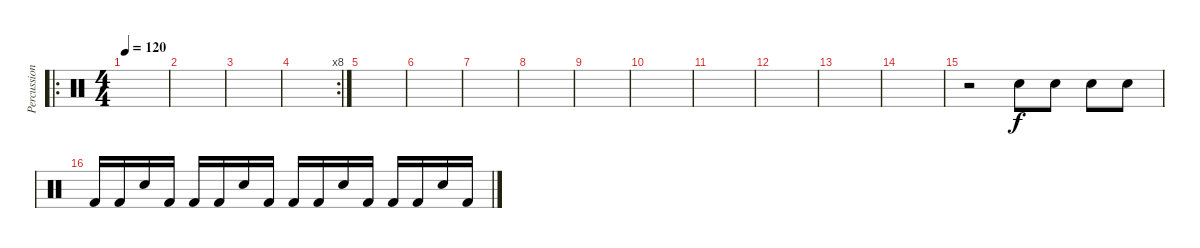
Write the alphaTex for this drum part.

\track ("Percussion" "Percussion") {instrument percussion}
\staff {score}
\articulation defaults
\ro
\ts (4 4)
\tempo 120
\clef neutral
\ks c
|
|
|
\rc 8
|
|
|
|
|
|
|
|
|
|
|
r.2 "Snare (hit) 2".8 "Snare (hit) 2".8 "Snare (hit) 2".8 "Snare (hit) 2".8 |
"Kick (hit) 2".16 "Kick (hit) 2".16 "Snare (hit) 2".16 "Kick (hit) 2".16 "Kick (hit) 2".16 "Kick (hit) 2".16 "Snare (hit) 2".16 "Kick (hit) 2".16 "Kick (hit) 2".16 "Kick (hit) 2".16 "Snare (hit) 2".16 "Kick (hit) 2".16 "Kick (hit) 2".16 "Kick (hit) 2".16 "Snare (hit) 2".16 "Kick (hit) 2".16
